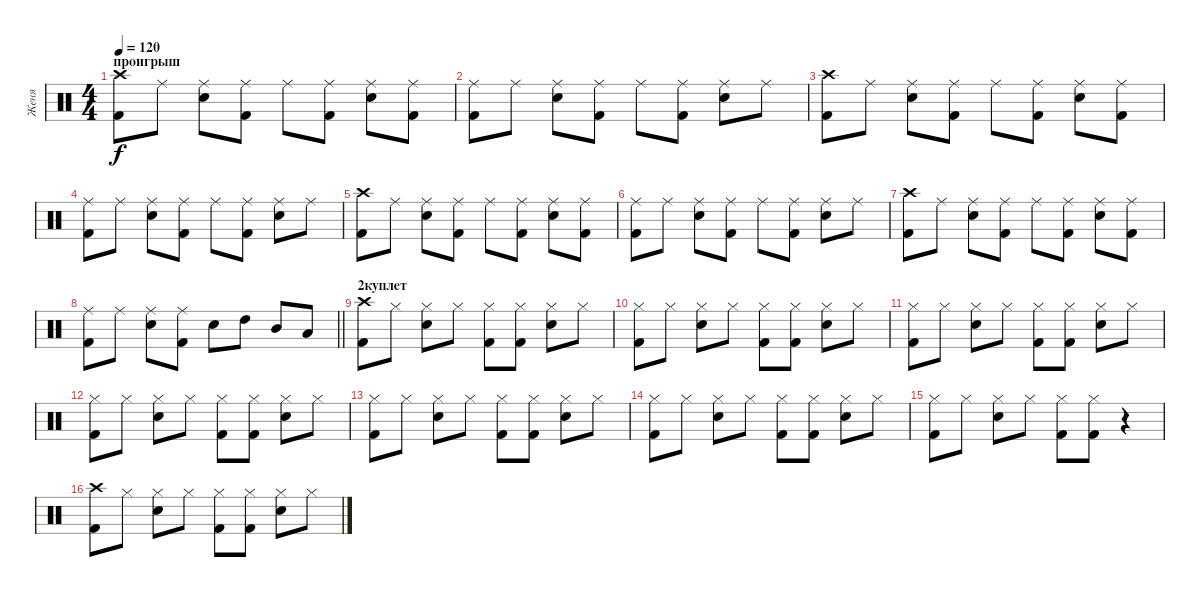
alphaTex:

\track ("Женя" "Женя") {instrument percussion}
\staff {score}
\articulation defaults
\ts (4 4)
\section ("" "проигрыш")
\tempo 120
\clef neutral
\ks c
("Crash high (hit)" "Kick (hit) 2").8{dy f} "Ride (middle)".8 ("Ride (middle)" "Snare (hit) 2").8 ("Ride (middle)" "Kick (hit) 2").8 "Ride (middle)".8 ("Ride (middle)" "Kick (hit) 2").8 ("Ride (middle)" "Snare (hit) 2").8 ("Ride (middle)" "Kick (hit) 2").8 |
("Ride (middle)" "Kick (hit) 2").8 "Ride (middle)".8 ("Ride (middle)" "Snare (hit) 2").8 ("Ride (middle)" "Kick (hit) 2").8 "Ride (middle)".8 ("Ride (middle)" "Kick (hit) 2").8 ("Ride (middle)" "Snare (hit) 2").8 "Ride (middle)".8 |
("Crash high (hit)" "Kick (hit) 2").8 "Ride (middle)".8 ("Ride (middle)" "Snare (hit) 2").8 ("Ride (middle)" "Kick (hit) 2").8 "Ride (middle)".8 ("Ride (middle)" "Kick (hit) 2").8 ("Ride (middle)" "Snare (hit) 2").8 ("Ride (middle)" "Kick (hit) 2").8 |
("Ride (middle)" "Kick (hit) 2").8 "Ride (middle)".8 ("Ride (middle)" "Snare (hit) 2").8 ("Ride (middle)" "Kick (hit) 2").8 "Ride (middle)".8 ("Ride (middle)" "Kick (hit) 2").8 ("Ride (middle)" "Snare (hit) 2").8 "Ride (middle)".8 |
("Crash high (hit)" "Kick (hit) 2").8 "Ride (middle)".8 ("Ride (middle)" "Snare (hit) 2").8 ("Ride (middle)" "Kick (hit) 2").8 "Ride (middle)".8 ("Ride (middle)" "Kick (hit) 2").8 ("Ride (middle)" "Snare (hit) 2").8 ("Ride (middle)" "Kick (hit) 2").8 |
("Ride (middle)" "Kick (hit) 2").8 "Ride (middle)".8 ("Ride (middle)" "Snare (hit) 2").8 ("Ride (middle)" "Kick (hit) 2").8 "Ride (middle)".8 ("Ride (middle)" "Kick (hit) 2").8 ("Ride (middle)" "Snare (hit) 2").8 "Ride (middle)".8 |
("Crash high (hit)" "Kick (hit) 2").8 "Ride (middle)".8 ("Ride (middle)" "Snare (hit) 2").8 ("Ride (middle)" "Kick (hit) 2").8 "Ride (middle)".8 ("Ride (middle)" "Kick (hit) 2").8 ("Ride (middle)" "Snare (hit) 2").8 ("Ride (middle)" "Kick (hit) 2").8 |
\barLineRight lightlight
("Ride (middle)" "Kick (hit) 2").8 "Ride (middle)".8 ("Ride (middle)" "Snare (hit) 2").8 ("Ride (middle)" "Kick (hit) 2").8 "Snare (hit) 2".8 "High Tom (hit)".8 "Mid Tom (hit)".8 "Low Tom (hit)".8 |
\section ("" "2куплет")
("Crash high (hit)" "Kick (hit) 2").8 "Hi-Hat (closed)".8 ("Hi-Hat (closed)" "Snare (hit) 2").8 "Hi-Hat (closed)".8 ("Hi-Hat (closed)" "Kick (hit) 2").8 ("Hi-Hat (closed)" "Kick (hit) 2").8 ("Hi-Hat (closed)" "Snare (hit) 2").8 "Hi-Hat (closed)".8 |
("Hi-Hat (closed)" "Kick (hit) 2").8 "Hi-Hat (closed)".8 ("Hi-Hat (closed)" "Snare (hit) 2").8 "Hi-Hat (closed)".8 ("Hi-Hat (closed)" "Kick (hit) 2").8 ("Hi-Hat (closed)" "Kick (hit) 2").8 ("Hi-Hat (closed)" "Snare (hit) 2").8 "Hi-Hat (closed)".8 |
("Hi-Hat (closed)" "Kick (hit) 2").8 "Hi-Hat (closed)".8 ("Hi-Hat (closed)" "Snare (hit) 2").8 "Hi-Hat (closed)".8 ("Hi-Hat (closed)" "Kick (hit) 2").8 ("Hi-Hat (closed)" "Kick (hit) 2").8 ("Hi-Hat (closed)" "Snare (hit) 2").8 "Hi-Hat (closed)".8 |
("Hi-Hat (closed)" "Kick (hit) 2").8 "Hi-Hat (closed)".8 ("Hi-Hat (closed)" "Snare (hit) 2").8 "Hi-Hat (closed)".8 ("Hi-Hat (closed)" "Kick (hit) 2").8 ("Hi-Hat (closed)" "Kick (hit) 2").8 ("Hi-Hat (closed)" "Snare (hit) 2").8 "Hi-Hat (closed)".8 |
("Hi-Hat (closed)" "Kick (hit) 2").8 "Hi-Hat (closed)".8 ("Hi-Hat (closed)" "Snare (hit) 2").8 "Hi-Hat (closed)".8 ("Hi-Hat (closed)" "Kick (hit) 2").8 ("Hi-Hat (closed)" "Kick (hit) 2").8 ("Hi-Hat (closed)" "Snare (hit) 2").8 "Hi-Hat (closed)".8 |
("Hi-Hat (closed)" "Kick (hit) 2").8 "Hi-Hat (closed)".8 ("Hi-Hat (closed)" "Snare (hit) 2").8 "Hi-Hat (closed)".8 ("Hi-Hat (closed)" "Kick (hit) 2").8 ("Hi-Hat (closed)" "Kick (hit) 2").8 ("Hi-Hat (closed)" "Snare (hit) 2").8 "Hi-Hat (closed)".8 |
("Hi-Hat (closed)" "Kick (hit) 2").8 "Hi-Hat (closed)".8 ("Hi-Hat (closed)" "Snare (hit) 2").8 "Hi-Hat (closed)".8 ("Hi-Hat (closed)" "Kick (hit) 2").8 ("Hi-Hat (closed)" "Kick (hit) 2").8 r.4 |
("Crash high (hit)" "Kick (hit) 2").8 "Hi-Hat (closed)".8 ("Hi-Hat (closed)" "Snare (hit) 2").8 "Hi-Hat (closed)".8 ("Hi-Hat (closed)" "Kick (hit) 2").8 ("Hi-Hat (closed)" "Kick (hit) 2").8 ("Hi-Hat (closed)" "Snare (hit) 2").8 "Hi-Hat (closed)".8
